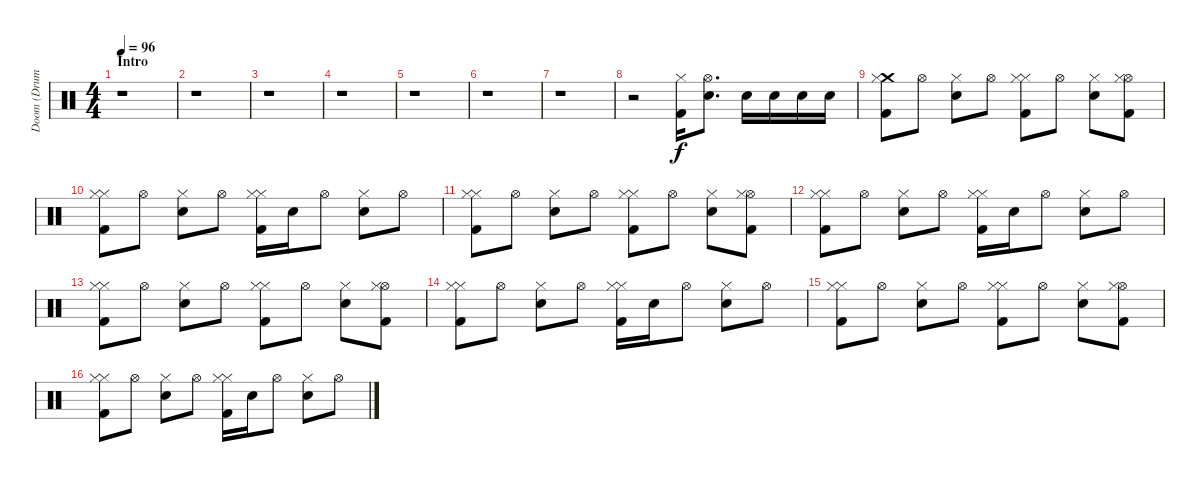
\track ("Doom (Drums)" "Doom (Drum") {instrument percussion}
\staff {score}
\articulation defaults
\ts (4 4)
\section ("" "Intro")
\tempo 96
\clef neutral
\ks c
r.1{dy f} |
r.1 |
r.1 |
r.1 |
r.1 |
r.1 |
r.1 |
r.2 ("Hi-Hat (closed)" "Kick (hit) 2").16 ("Hi-Hat (open)" "Electric Snare (hit)").8{d} "Electric Snare (hit)".16 "Electric Snare (hit)".16 "Electric Snare (hit)".16 "Electric Snare (hit)".16 |
("Crash medium (hit)" "Hi-Hat (closed)" "Kick (hit) 2").8 "Hi-Hat (open)".8 ("Hi-Hat (closed)" "Electric Snare (hit)").8 "Hi-Hat (open)".8 ("Hi-Hat (closed)" "Hi-Hat (closed)" "Kick (hit) 2").8 "Hi-Hat (open)".8 ("Hi-Hat (closed)" "Electric Snare (hit)").8 ("Hi-Hat (open)" "Hi-Hat (closed)" "Kick (hit) 2").8 |
("Hi-Hat (closed)" "Hi-Hat (closed)" "Kick (hit) 2").8 "Hi-Hat (open)".8 ("Hi-Hat (closed)" "Electric Snare (hit)").8 "Hi-Hat (open)".8 ("Hi-Hat (closed)" "Hi-Hat (closed)" "Kick (hit) 2").16 "Electric Snare (hit)".16 "Hi-Hat (open)".8 ("Hi-Hat (closed)" "Electric Snare (hit)").8 "Hi-Hat (open)".8 |
("Hi-Hat (closed)" "Hi-Hat (closed)" "Kick (hit) 2").8 "Hi-Hat (open)".8 ("Hi-Hat (closed)" "Electric Snare (hit)").8 "Hi-Hat (open)".8 ("Hi-Hat (closed)" "Hi-Hat (closed)" "Kick (hit) 2").8 "Hi-Hat (open)".8 ("Hi-Hat (closed)" "Electric Snare (hit)").8 ("Hi-Hat (open)" "Hi-Hat (closed)" "Kick (hit) 2").8 |
("Hi-Hat (closed)" "Hi-Hat (closed)" "Kick (hit) 2").8 "Hi-Hat (open)".8 ("Hi-Hat (closed)" "Electric Snare (hit)").8 "Hi-Hat (open)".8 ("Hi-Hat (closed)" "Hi-Hat (closed)" "Kick (hit) 2").16 "Electric Snare (hit)".16 "Hi-Hat (open)".8 ("Hi-Hat (closed)" "Electric Snare (hit)").8 "Hi-Hat (open)".8 |
("Hi-Hat (closed)" "Hi-Hat (closed)" "Kick (hit) 2").8 "Hi-Hat (open)".8 ("Hi-Hat (closed)" "Electric Snare (hit)").8 "Hi-Hat (open)".8 ("Hi-Hat (closed)" "Hi-Hat (closed)" "Kick (hit) 2").8 "Hi-Hat (open)".8 ("Hi-Hat (closed)" "Electric Snare (hit)").8 ("Hi-Hat (open)" "Hi-Hat (closed)" "Kick (hit) 2").8 |
("Hi-Hat (closed)" "Hi-Hat (closed)" "Kick (hit) 2").8 "Hi-Hat (open)".8 ("Hi-Hat (closed)" "Electric Snare (hit)").8 "Hi-Hat (open)".8 ("Hi-Hat (closed)" "Hi-Hat (closed)" "Kick (hit) 2").16 "Electric Snare (hit)".16 "Hi-Hat (open)".8 ("Hi-Hat (closed)" "Electric Snare (hit)").8 "Hi-Hat (open)".8 |
("Hi-Hat (closed)" "Hi-Hat (closed)" "Kick (hit) 2").8 "Hi-Hat (open)".8 ("Hi-Hat (closed)" "Electric Snare (hit)").8 "Hi-Hat (open)".8 ("Hi-Hat (closed)" "Hi-Hat (closed)" "Kick (hit) 2").8 "Hi-Hat (open)".8 ("Hi-Hat (closed)" "Electric Snare (hit)").8 ("Hi-Hat (open)" "Hi-Hat (closed)" "Kick (hit) 2").8 |
("Hi-Hat (closed)" "Hi-Hat (closed)" "Kick (hit) 2").8 "Hi-Hat (open)".8 ("Hi-Hat (closed)" "Electric Snare (hit)").8 "Hi-Hat (open)".8 ("Hi-Hat (closed)" "Hi-Hat (closed)" "Kick (hit) 2").16 "Electric Snare (hit)".16 "Hi-Hat (open)".8 ("Hi-Hat (closed)" "Electric Snare (hit)").8 "Hi-Hat (open)".8
